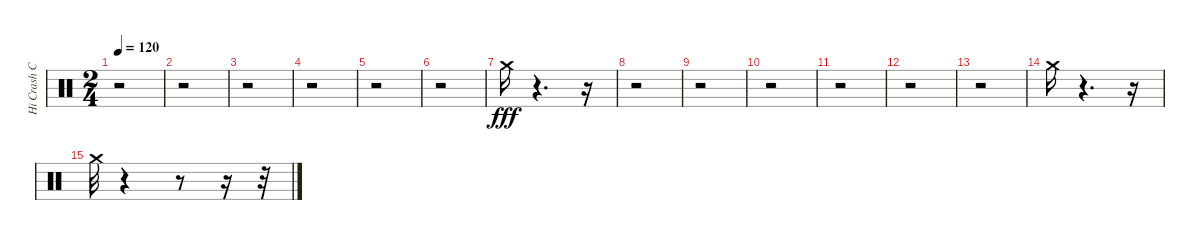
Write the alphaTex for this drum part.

\track ("Hi Crash Cymbal (1) (1) (1) (1)" "Hi Crash C") {instrument percussion}
\staff {score}
\articulation defaults
\ts (2 4)
\tempo 120
\clef neutral
\ks c
r.2{dy fff} |
r.2 |
r.2 |
r.2 |
r.2 |
r.2 |
"Crash medium (hit)".16 r.4{d} r.16 |
r.2 |
r.2 |
r.2 |
r.2 |
r.2 |
r.2 |
"Crash medium (hit)".16 r.4{d} r.16 |
"Crash medium (hit)".32 r.4 r.8 r.16 r.32
